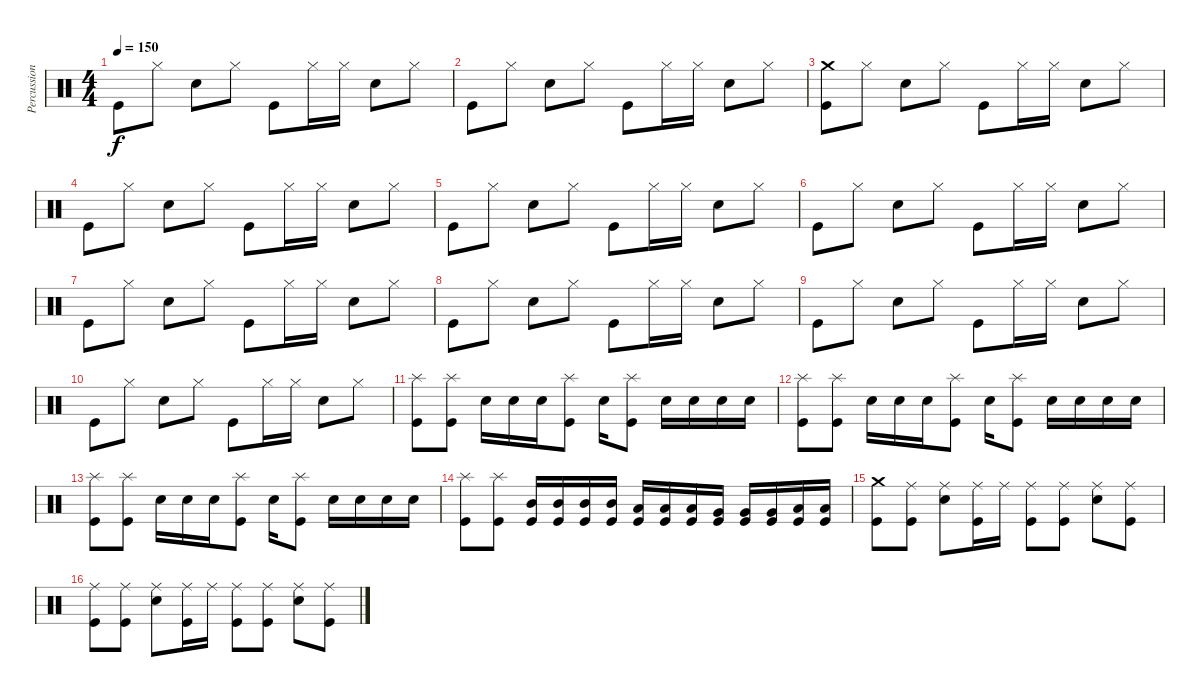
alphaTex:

\track ("Percussion" "Percussion") {instrument percussion}
\staff {score}
\articulation defaults
\ts (4 4)
\tempo 150
\clef neutral
\ks c "Kick (hit)".8{dy f} "Hi-Hat (closed)".8 "Snare (hit) 2".8 "Hi-Hat (closed)".8 "Kick (hit)".8 "Hi-Hat (closed)".16 "Hi-Hat (closed)".16 "Snare (hit) 2".8 "Hi-Hat (closed)".8
|
"Kick (hit)".8 "Hi-Hat (closed)".8 "Snare (hit) 2".8 "Hi-Hat (closed)".8 "Kick (hit)".8 "Hi-Hat (closed)".16 "Hi-Hat (closed)".16 "Snare (hit) 2".8 "Hi-Hat (closed)".8 |
("Crash medium (hit)" "Kick (hit)").8 "Hi-Hat (closed)".8 "Snare (hit) 2".8 "Hi-Hat (closed)".8 "Kick (hit)".8 "Hi-Hat (closed)".16 "Hi-Hat (closed)".16 "Snare (hit) 2".8 "Hi-Hat (closed)".8 |
"Kick (hit)".8 "Hi-Hat (closed)".8 "Snare (hit) 2".8 "Hi-Hat (closed)".8 "Kick (hit)".8 "Hi-Hat (closed)".16 "Hi-Hat (closed)".16 "Snare (hit) 2".8 "Hi-Hat (closed)".8 |
"Kick (hit)".8 "Hi-Hat (closed)".8 "Snare (hit) 2".8 "Hi-Hat (closed)".8 "Kick (hit)".8 "Hi-Hat (closed)".16 "Hi-Hat (closed)".16 "Snare (hit) 2".8 "Hi-Hat (closed)".8 |
"Kick (hit)".8 "Hi-Hat (closed)".8 "Snare (hit) 2".8 "Hi-Hat (closed)".8 "Kick (hit)".8 "Hi-Hat (closed)".16 "Hi-Hat (closed)".16 "Snare (hit) 2".8 "Hi-Hat (closed)".8 |
"Kick (hit)".8 "Hi-Hat (closed)".8 "Snare (hit) 2".8 "Hi-Hat (closed)".8 "Kick (hit)".8 "Hi-Hat (closed)".16 "Hi-Hat (closed)".16 "Snare (hit) 2".8 "Hi-Hat (closed)".8 |
"Kick (hit)".8 "Hi-Hat (closed)".8 "Snare (hit) 2".8 "Hi-Hat (closed)".8 "Kick (hit)".8 "Hi-Hat (closed)".16 "Hi-Hat (closed)".16 "Snare (hit) 2".8 "Hi-Hat (closed)".8 |
"Kick (hit)".8 "Hi-Hat (closed)".8 "Snare (hit) 2".8 "Hi-Hat (closed)".8 "Kick (hit)".8 "Hi-Hat (closed)".16 "Hi-Hat (closed)".16 "Snare (hit) 2".8 "Hi-Hat (closed)".8 |
"Kick (hit)".8 "Hi-Hat (closed)".8 "Snare (hit) 2".8 "Hi-Hat (closed)".8 "Kick (hit)".8 "Hi-Hat (closed)".16 "Hi-Hat (closed)".16 "Snare (hit) 2".8 "Hi-Hat (closed)".8 |
("Splash (hit)" "Kick (hit)").8 ("Splash (hit)" "Kick (hit)").8 "Snare (hit) 2".16 "Snare (hit) 2".16 "Snare (hit) 2".16 ("Splash (hit)" "Kick (hit)").8 "Snare (hit) 2".16 ("Splash (hit)" "Kick (hit)").8 "Snare (hit) 2".16 "Snare (hit) 2".16 "Snare (hit) 2".16 "Snare (hit) 2".16 |
("Splash (hit)" "Kick (hit)").8 ("Splash (hit)" "Kick (hit)").8 "Snare (hit) 2".16 "Snare (hit) 2".16 "Snare (hit) 2".16 ("Splash (hit)" "Kick (hit)").8 "Snare (hit) 2".16 ("Splash (hit)" "Kick (hit)").8 "Snare (hit) 2".16 "Snare (hit) 2".16 "Snare (hit) 2".16 "Snare (hit) 2".16 |
("Splash (hit)" "Kick (hit)").8 ("Splash (hit)" "Kick (hit)").8 "Snare (hit) 2".16 "Snare (hit) 2".16 "Snare (hit) 2".16 ("Splash (hit)" "Kick (hit)").8 "Snare (hit) 2".16 ("Splash (hit)" "Kick (hit)").8 "Snare (hit) 2".16 "Snare (hit) 2".16 "Snare (hit) 2".16 "Snare (hit) 2".16 |
("Splash (hit)" "Kick (hit)").8 ("Splash (hit)" "Kick (hit)").8 ("Mid Tom (hit)" "Kick (hit)").16 ("Mid Tom (hit)" "Kick (hit)").16 ("Mid Tom (hit)" "Kick (hit)").16 ("Mid Tom (hit)" "Kick (hit)").16 ("Low Tom (hit)" "Kick (hit)").16 ("Low Tom (hit)" "Kick (hit)").16 ("Low Tom (hit)" "Kick (hit)").16 ("Very Low Tom (hit)" "Kick (hit)").16 ("Very Low Tom (hit)" "Kick (hit)").16 ("Very Low Tom (hit)" "Kick (hit)").16 ("Low Floor Tom (hit)" "Kick (hit)").16 ("Low Floor Tom (hit)" "Kick (hit)").16 |
("Crash medium (hit)" "Kick (hit)").8 ("Ride (middle)" "Kick (hit)").8 ("Ride (middle)" "Snare (hit) 2").8 ("Ride (middle)" "Kick (hit)").16 "Ride (middle)".16 ("Ride (middle)" "Kick (hit)").8 ("Ride (middle)" "Kick (hit)").8 ("Ride (middle)" "Snare (hit) 2").8 ("Ride (middle)" "Kick (hit)").8 |
("Ride (middle)" "Kick (hit)").8 ("Ride (middle)" "Kick (hit)").8 ("Ride (middle)" "Snare (hit) 2").8 ("Ride (middle)" "Kick (hit)").16 "Ride (middle)".16 ("Ride (middle)" "Kick (hit)").8 ("Ride (middle)" "Kick (hit)").8 ("Ride (middle)" "Snare (hit) 2").8 ("Ride (middle)" "Kick (hit)").8
